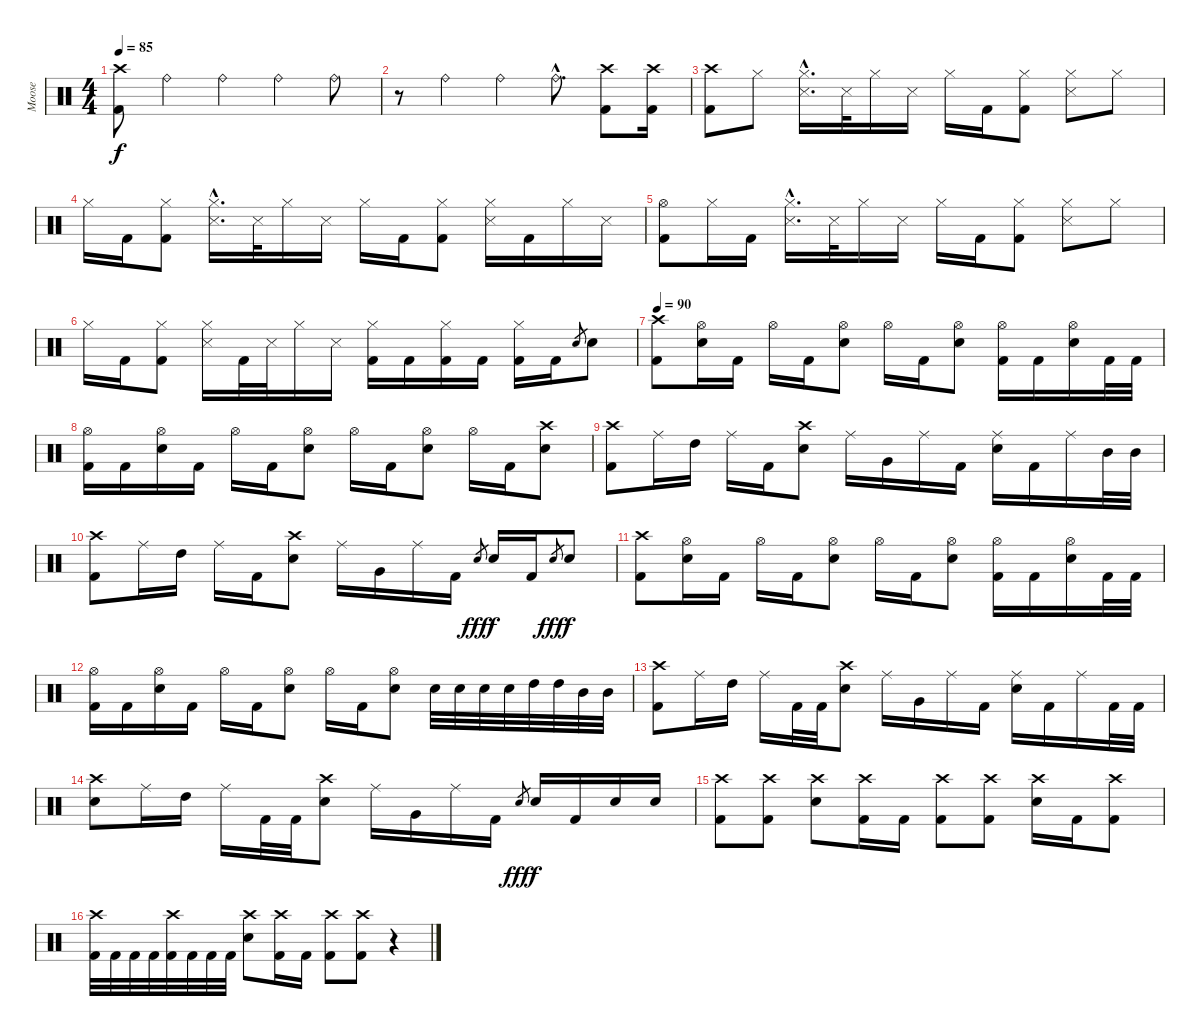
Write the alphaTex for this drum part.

\track ("Moose" "Moose") {instrument percussion}
\staff {score}
\articulation defaults
\ts (4 4)
\tempo 85
\clef neutral
\ks c
("Crash high (hit)" "Kick (hit) 2").8{dy f} "Ride (bell)".4 "Ride (bell)".4 "Ride (bell)".4 "Ride (bell)".8 |
r.8 "Ride (bell)".4 "Ride (bell)".4 "Ride (bell)"{hac}.8{d} ("Crash high (hit)" "Kick (hit) 2").8 ("Crash high (hit)" "Kick (hit) 2").16 |
("Crash high (hit)" "Kick (hit) 2").8 "Hi-Hat (closed)".8 ("Hi-Hat (closed)"{hac} "Snare (side stick) 3"{hac}).16{d} "Snare (side stick) 3".32 "Hi-Hat (closed)".16 "Snare (side stick) 3".16 "Hi-Hat (closed)".16 "Kick (hit) 2".16 ("Hi-Hat (closed)" "Kick (hit) 2").8 ("Hi-Hat (closed)" "Snare (side stick) 3").8 "Hi-Hat (closed)".8 |
"Hi-Hat (closed)".16 "Kick (hit) 2".16 ("Hi-Hat (closed)" "Kick (hit) 2").8 ("Hi-Hat (closed)"{hac} "Snare (side stick) 3"{hac}).16{d} "Snare (side stick) 3".32 "Hi-Hat (closed)".16 "Snare (side stick) 3".16 "Hi-Hat (closed)".16 "Kick (hit) 2".16 ("Hi-Hat (closed)" "Kick (hit) 2").8 ("Hi-Hat (closed)" "Snare (side stick) 3").16 "Kick (hit) 2".16 "Hi-Hat (closed)".16 "Snare (side stick) 3".16 |
("Hi-Hat (open)" "Kick (hit) 2").8 "Hi-Hat (closed)".16 "Kick (hit) 2".16 ("Hi-Hat (closed)"{hac} "Snare (side stick) 3"{hac}).16{d} "Snare (side stick) 3".32 "Hi-Hat (closed)".16 "Snare (side stick) 3".16 "Hi-Hat (closed)".16 "Kick (hit) 2".16 ("Hi-Hat (closed)" "Kick (hit) 2").8 ("Hi-Hat (closed)" "Snare (side stick) 3").8 "Hi-Hat (closed)".8 |
"Hi-Hat (closed)".16 "Kick (hit) 2".16 ("Hi-Hat (closed)" "Kick (hit) 2").8 ("Hi-Hat (closed)" "Snare (side stick) 3").16 "Kick (hit) 2".32 "Snare (side stick) 3".32 "Hi-Hat (closed)".16 "Snare (side stick) 3".16 ("Hi-Hat (closed)" "Kick (hit) 2").16 "Kick (hit) 2".16 ("Hi-Hat (closed)" "Kick (hit) 2").16 "Kick (hit) 2".16 ("Hi-Hat (closed)" "Kick (hit) 2").16 "Kick (hit) 2".16 "Snare (hit) 2".8{gr} "Snare (hit) 2".8 |
\tempo 90
("Crash high (hit)" "Kick (hit) 2").8 ("Hi-Hat (open)" "Snare (hit) 2").16 "Kick (hit) 2".16 "Hi-Hat (open)".16 "Kick (hit) 2".16 ("Hi-Hat (open)" "Snare (hit) 2").8 "Hi-Hat (open)".16 "Kick (hit) 2".16 ("Hi-Hat (open)" "Snare (hit) 2").8 ("Hi-Hat (open)" "Kick (hit) 2").16 "Kick (hit) 2".16 ("Hi-Hat (open)" "Snare (hit) 2").16 "Kick (hit) 2".32 "Kick (hit) 2".32 |
("Hi-Hat (open)" "Kick (hit) 2").16 "Kick (hit) 2".16 ("Hi-Hat (open)" "Snare (hit) 2").16 "Kick (hit) 2".16 "Hi-Hat (open)".16 "Kick (hit) 2".16 ("Hi-Hat (open)" "Snare (hit) 2").8 "Hi-Hat (open)".16 "Kick (hit) 2".16 ("Hi-Hat (open)" "Snare (hit) 2").8 "Hi-Hat (open)".16 "Kick (hit) 2".16 ("Crash high (hit)" "Snare (hit) 2").8 |
("Crash high (hit)" "Kick (hit) 2").8 "Ride (middle)".16 "High Tom (hit)".16 "Ride (middle)".16 "Kick (hit) 2".16 ("Crash high (hit)" "Snare (hit) 2").8 "Ride (middle)".16 "Very Low Tom (hit)".16 "Ride (middle)".16 "Kick (hit) 2".16 ("Ride (middle)" "Snare (hit) 2").16 "Kick (hit) 2".16 "Ride (middle)".16 "Mid Tom (hit)".32 "Mid Tom (hit)".32 |
("Crash high (hit)" "Kick (hit) 2").8 "Ride (middle)".16 "High Tom (hit)".16 "Ride (middle)".16 "Kick (hit) 2".16 ("Crash high (hit)" "Snare (hit) 2").8 "Ride (middle)".16 "Very Low Tom (hit)".16 "Ride (middle)".16 "Kick (hit) 2".16 "Snare (hit) 2".8{gr dy fff} "Snare (hit) 2".16{dy f} "Kick (hit) 2".16 "Snare (hit) 2".8{gr dy fff} "Snare (hit) 2".8{dy f} |
("Crash high (hit)" "Kick (hit) 2").8 ("Hi-Hat (open)" "Snare (hit) 2").16 "Kick (hit) 2".16 "Hi-Hat (open)".16 "Kick (hit) 2".16 ("Hi-Hat (open)" "Snare (hit) 2").8 "Hi-Hat (open)".16 "Kick (hit) 2".16 ("Hi-Hat (open)" "Snare (hit) 2").8 ("Hi-Hat (open)" "Kick (hit) 2").16 "Kick (hit) 2".16 ("Hi-Hat (open)" "Snare (hit) 2").16 "Kick (hit) 2".32 "Kick (hit) 2".32 |
("Hi-Hat (open)" "Kick (hit) 2").16 "Kick (hit) 2".16 ("Hi-Hat (open)" "Snare (hit) 2").16 "Kick (hit) 2".16 "Hi-Hat (open)".16 "Kick (hit) 2".16 ("Hi-Hat (open)" "Snare (hit) 2").8 "Hi-Hat (open)".16 "Kick (hit) 2".16 ("Hi-Hat (open)" "Snare (hit) 2").8 "Snare (hit) 2".32 "Snare (hit) 2".32 "Snare (hit) 2".32 "Snare (hit) 2".32 "High Tom (hit)".32 "High Tom (hit)".32 "Mid Tom (hit)".32 "Mid Tom (hit)".32 |
("Crash high (hit)" "Kick (hit) 2").8 "Ride (middle)".16 "High Tom (hit)".16 "Ride (middle)".16 "Kick (hit) 2".32 "Kick (hit) 2".32 ("Crash high (hit)" "Snare (hit) 2").8 "Ride (middle)".16 "Very Low Tom (hit)".16 "Ride (middle)".16 "Kick (hit) 2".16 ("Ride (middle)" "Snare (hit) 2").16 "Kick (hit) 2".16 "Ride (middle)".16 "Kick (hit) 2".32 "Kick (hit) 2".32 |
("Crash high (hit)" "Snare (hit) 2").8 "Ride (middle)".16 "High Tom (hit)".16 "Ride (middle)".16 "Kick (hit) 2".32 "Kick (hit) 2".32 ("Crash high (hit)" "Snare (hit) 2").8 "Ride (middle)".16 "Very Low Tom (hit)".16 "Ride (middle)".16 "Kick (hit) 2".16 "Snare (hit) 2".8{gr dy fff} "Snare (hit) 2".16{dy f} "Kick (hit) 2".16 "Snare (hit) 2".16 "Snare (hit) 2".16 |
("Crash high (hit)" "Kick (hit) 2").8 ("Crash high (hit)" "Kick (hit) 2").8 ("Crash high (hit)" "Snare (hit) 2").8 ("Crash high (hit)" "Kick (hit) 2").16 "Kick (hit) 2".16 ("Crash high (hit)" "Kick (hit) 2").8 ("Crash high (hit)" "Kick (hit) 2").8 ("Crash high (hit)" "Snare (hit) 2").16 "Kick (hit) 2".16 ("Crash high (hit)" "Kick (hit) 2").8 |
("Crash high (hit)" "Kick (hit) 2").32 "Kick (hit) 2".32 "Kick (hit) 2".32 "Kick (hit) 2".32 ("Crash high (hit)" "Kick (hit) 2").32 "Kick (hit) 2".32 "Kick (hit) 2".32 "Kick (hit) 2".32 ("Crash high (hit)" "Snare (hit) 2").8 ("Crash high (hit)" "Kick (hit) 2").16 "Kick (hit) 2".16 ("Crash high (hit)" "Kick (hit) 2").8 ("Crash high (hit)" "Kick (hit) 2").8 r.4
